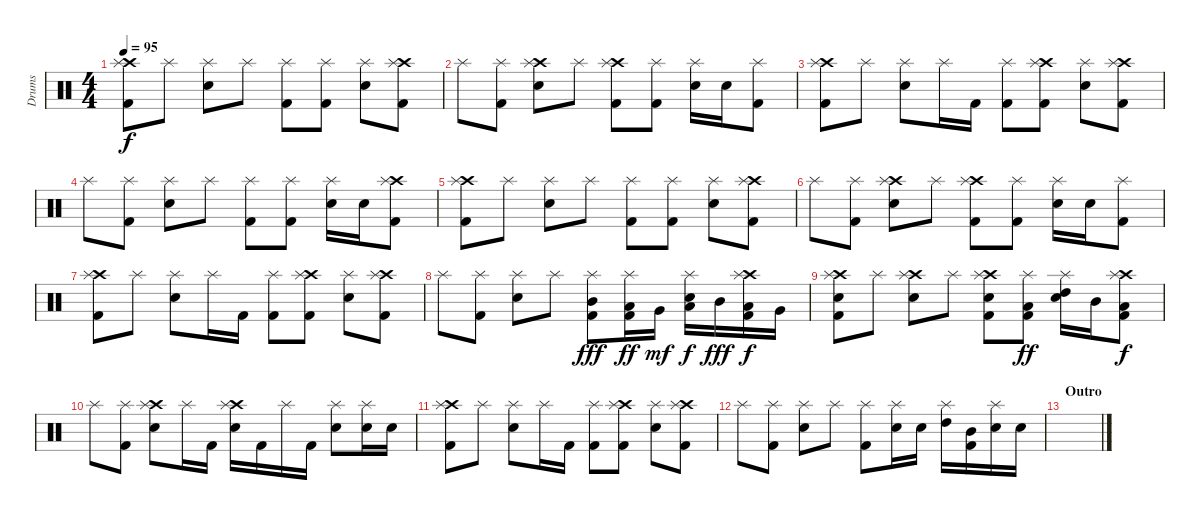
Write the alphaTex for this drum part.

\track ("Drums" "Drums") {instrument percussion}
\staff {score}
\articulation defaults
\ts (4 4)
\tempo 95
\clef neutral
\ks c
("Crash high (hit)" "Splash (hit)" "Kick (hit) 2").8{dy f} "Splash (hit)".8 ("Splash (hit)" "Electric Snare (hit)").8 "Splash (hit)".8 ("Splash (hit)" "Kick (hit) 2").8 ("Splash (hit)" "Kick (hit) 2").8 ("Splash (hit)" "Electric Snare (hit)").8 ("Crash high (hit)" "Splash (hit)" "Kick (hit) 2").8 |
"Splash (hit)".8 ("Splash (hit)" "Kick (hit) 2").8 ("Crash high (hit)" "Splash (hit)" "Electric Snare (hit)").8 "Splash (hit)".8 ("Crash high (hit)" "Splash (hit)" "Kick (hit) 2").8 ("Splash (hit)" "Kick (hit) 2").8 ("Splash (hit)" "Electric Snare (hit)").16 "Electric Snare (hit)".16 ("Splash (hit)" "Kick (hit) 2").8 |
("Crash high (hit)" "Splash (hit)" "Kick (hit) 2").8 "Splash (hit)".8 ("Splash (hit)" "Electric Snare (hit)").8 "Splash (hit)".16 "Kick (hit) 2".16 ("Splash (hit)" "Kick (hit) 2").8 ("Crash high (hit)" "Splash (hit)" "Kick (hit) 2").8 ("Splash (hit)" "Electric Snare (hit)").8 ("Crash high (hit)" "Splash (hit)" "Kick (hit) 2").8 |
"Splash (hit)".8 ("Splash (hit)" "Kick (hit) 2").8 ("Splash (hit)" "Electric Snare (hit)").8 "Splash (hit)".8 ("Splash (hit)" "Kick (hit) 2").8 ("Splash (hit)" "Kick (hit) 2").8 ("Splash (hit)" "Electric Snare (hit)").16 "Electric Snare (hit)".16 ("Crash high (hit)" "Splash (hit)" "Kick (hit) 2").8 |
("Crash high (hit)" "Splash (hit)" "Kick (hit) 2").8 "Splash (hit)".8 ("Splash (hit)" "Electric Snare (hit)").8 "Splash (hit)".8 ("Splash (hit)" "Kick (hit) 2").8 ("Splash (hit)" "Kick (hit) 2").8 ("Splash (hit)" "Electric Snare (hit)").8 ("Crash high (hit)" "Splash (hit)" "Kick (hit) 2").8 |
"Splash (hit)".8 ("Splash (hit)" "Kick (hit) 2").8 ("Crash high (hit)" "Splash (hit)" "Electric Snare (hit)").8 "Splash (hit)".8 ("Crash high (hit)" "Splash (hit)" "Kick (hit) 2").8 ("Splash (hit)" "Kick (hit) 2").8 ("Splash (hit)" "Electric Snare (hit)").16 "Electric Snare (hit)".16 ("Splash (hit)" "Kick (hit) 2").8 |
("Crash high (hit)" "Splash (hit)" "Kick (hit) 2").8 "Splash (hit)".8 ("Splash (hit)" "Electric Snare (hit)").8 "Splash (hit)".16 "Kick (hit) 2".16 ("Splash (hit)" "Kick (hit) 2").8 ("Crash high (hit)" "Splash (hit)" "Kick (hit) 2").8 ("Splash (hit)" "Electric Snare (hit)").8 ("Crash high (hit)" "Splash (hit)" "Kick (hit) 2").8 |
"Splash (hit)".8 ("Splash (hit)" "Kick (hit) 2").8 ("Splash (hit)" "Electric Snare (hit)").8 "Splash (hit)".8 ("Splash (hit)" "Mid Tom (hit)" "Kick (hit) 2").8{dy fff} ("Splash (hit)" "Low Tom (hit)" "Kick (hit) 2").16{dy ff} "Very Low Tom (hit)".16{dy mf} ("Splash (hit)" "Electric Snare (hit)" "Low Floor Tom (hit)").16{dy f} "Mid Tom (hit)".16{dy fff} ("Crash high (hit)" "Splash (hit)" "Low Tom (hit)" "Kick (hit) 2").16{dy f} "Very Low Tom (hit)".16 |
("Crash high (hit)" "Splash (hit)" "Electric Snare (hit)" "Kick (hit) 2").8 "Splash (hit)".8 ("Crash high (hit)" "Splash (hit)" "Electric Snare (hit)").8 "Splash (hit)".8 ("Crash high (hit)" "Splash (hit)" "Electric Snare (hit)" "Kick (hit) 2").8 ("Splash (hit)" "Low Tom (hit)" "Kick (hit) 2").8{dy ff} ("Splash (hit)" "Electric Snare (hit)" "High Tom (hit)").16 "Mid Tom (hit)".16 ("Crash high (hit)" "Splash (hit)" "Low Tom (hit)" "Kick (hit) 2").8{dy f} |
"Splash (hit)".8 ("Splash (hit)" "Kick (hit) 2").8 ("Crash high (hit)" "Splash (hit)" "Electric Snare (hit)").8 "Splash (hit)".16 "Kick (hit) 2".16 ("Crash high (hit)" "Splash (hit)" "Electric Snare (hit)").16 "Kick (hit) 2".16 "Splash (hit)".16 "Kick (hit) 2".16 ("Splash (hit)" "Electric Snare (hit)").8 ("Splash (hit)" "Electric Snare (hit)").16 "Electric Snare (hit)".16 |
("Crash high (hit)" "Splash (hit)" "Kick (hit) 2").8 "Splash (hit)".8 ("Splash (hit)" "Electric Snare (hit)").8 "Splash (hit)".16 "Kick (hit) 2".16 ("Splash (hit)" "Kick (hit) 2").8 ("Crash high (hit)" "Splash (hit)" "Kick (hit) 2").8 ("Splash (hit)" "Electric Snare (hit)").8 ("Crash high (hit)" "Splash (hit)" "Kick (hit) 2").8 |
"Splash (hit)".8 ("Splash (hit)" "Kick (hit) 2").8 ("Splash (hit)" "Electric Snare (hit)").8 "Splash (hit)".8 ("Splash (hit)" "Kick (hit) 2").8 ("Splash (hit)" "Electric Snare (hit)").16 "Electric Snare (hit)".16 ("Splash (hit)" "High Tom (hit)").16 ("Mid Tom (hit)" "Kick (hit) 2").16 ("Splash (hit)" "Electric Snare (hit)").16 "Electric Snare (hit)".16 |
\section ("" "Outro")
